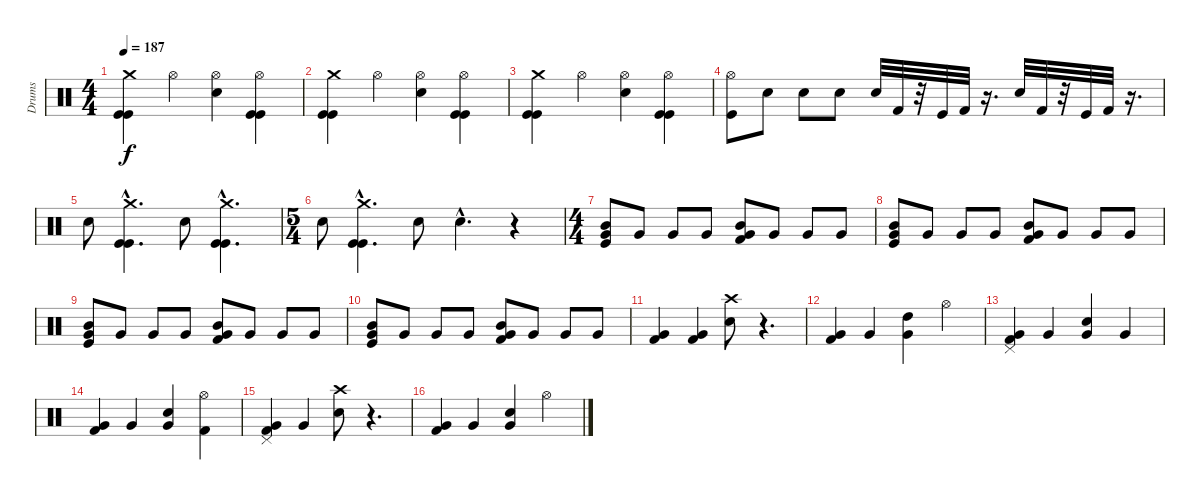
\track ("Drums" "Drums") {instrument percussion}
\staff {score}
\articulation defaults
\ts (4 4)
\tempo 187
\clef neutral
\ks c
("Kick (hit)" "Kick (hit)" "Crash medium (hit)").4{dy f} "Hi-Hat (open)".4 ("Hi-Hat (open)" "Electric Snare (hit)").4 ("Hi-Hat (open)" "Kick (hit)" "Kick (hit)").4 |
("Kick (hit)" "Kick (hit)" "Crash medium (hit)").4 "Hi-Hat (open)".4 ("Hi-Hat (open)" "Electric Snare (hit)").4 ("Hi-Hat (open)" "Kick (hit)" "Kick (hit)").4 |
("Kick (hit)" "Kick (hit)" "Crash medium (hit)").4 "Hi-Hat (open)".4 ("Hi-Hat (open)" "Electric Snare (hit)").4 ("Hi-Hat (open)" "Kick (hit)" "Kick (hit)").4 |
("Hi-Hat (open)" "Kick (hit)").8 "Electric Snare (hit)".8 "Electric Snare (hit)".8 "Electric Snare (hit)".8 "Snare (hit) 2".32 "Kick (hit) 2".32 r.32 "Kick (hit)".32 "Kick (hit) 2".32 r.16{d} "Snare (hit) 2".32 "Kick (hit) 2".32 r.32 "Kick (hit)".32 "Kick (hit) 2".32 r.16{d} |
"Electric Snare (hit)".8 ("Kick (hit)"{hac} "Kick (hit)"{hac} "Crash medium (hit)"{hac}).4{d} "Electric Snare (hit)".8 ("Kick (hit)"{hac} "Kick (hit)"{hac} "Crash medium (hit)"{hac}).4{d} |
\ts (5 4)
"Electric Snare (hit)".8 ("Kick (hit)"{hac} "Kick (hit)"{hac} "Crash medium (hit)"{hac}).4{d} "Electric Snare (hit)".8 "Electric Snare (hit)"{hac}.4{d} r.4 |
\ts (4 4)
("Kick (hit)" "Very Low Tom (hit)" "Mid Tom (hit)").8 "Very Low Tom (hit)".8 "Very Low Tom (hit)".8 "Very Low Tom (hit)".8 ("Kick (hit) 2" "Very Low Tom (hit)" "Mid Tom (hit)").8 "Very Low Tom (hit)".8 "Very Low Tom (hit)".8 "Very Low Tom (hit)".8 |
("Kick (hit)" "Very Low Tom (hit)" "Mid Tom (hit)").8 "Very Low Tom (hit)".8 "Very Low Tom (hit)".8 "Very Low Tom (hit)".8 ("Kick (hit) 2" "Very Low Tom (hit)" "Mid Tom (hit)").8 "Very Low Tom (hit)".8 "Very Low Tom (hit)".8 "Very Low Tom (hit)".8 |
("Kick (hit)" "Very Low Tom (hit)" "Mid Tom (hit)").8 "Very Low Tom (hit)".8 "Very Low Tom (hit)".8 "Very Low Tom (hit)".8 ("Kick (hit) 2" "Very Low Tom (hit)" "Mid Tom (hit)").8 "Very Low Tom (hit)".8 "Very Low Tom (hit)".8 "Very Low Tom (hit)".8 |
("Kick (hit)" "Very Low Tom (hit)" "Mid Tom (hit)").8 "Very Low Tom (hit)".8 "Very Low Tom (hit)".8 "Very Low Tom (hit)".8 ("Kick (hit) 2" "Very Low Tom (hit)" "Mid Tom (hit)").8 "Very Low Tom (hit)".8 "Very Low Tom (hit)".8 "Very Low Tom (hit)".8 |
("Kick (hit) 2" "Very Low Tom (hit)").4 ("Kick (hit) 2" "Very Low Tom (hit)").4 ("Crash high (hit)" "Snare (hit) 2").8 r.4{d} |
("Very Low Tom (hit)" "Kick (hit) 2").4 "Very Low Tom (hit)".4 ("High Tom (hit)" "Very Low Tom (hit)").4 "Hi-Hat (open)".4 |
("Pedal Hi-Hat (hit)" "Kick (hit) 2" "Very Low Tom (hit)").4 "Very Low Tom (hit)".4 ("Very Low Tom (hit)" "Snare (hit) 2").4 "Very Low Tom (hit)".4 |
("Very Low Tom (hit)" "Kick (hit) 2").4 "Very Low Tom (hit)".4 ("Snare (hit) 2" "Very Low Tom (hit)").4 ("Kick (hit) 2" "Hi-Hat (open)").4 |
("Very Low Tom (hit)" "Pedal Hi-Hat (hit)" "Kick (hit) 2").4 "Very Low Tom (hit)".4 ("Snare (hit) 2" "Crash high (hit)").8 r.4{d} |
("Very Low Tom (hit)" "Kick (hit) 2").4 "Very Low Tom (hit)".4 ("Snare (hit) 2" "Very Low Tom (hit)").4 "Hi-Hat (open)".4
